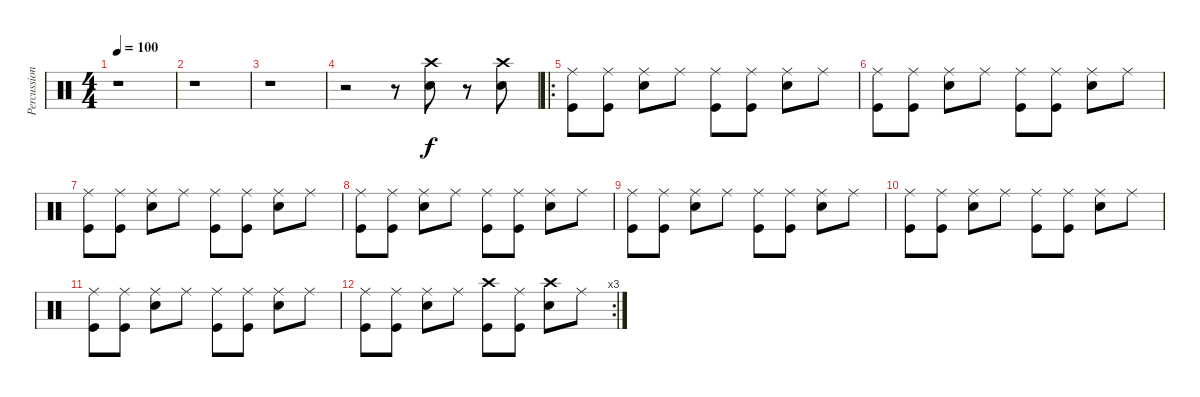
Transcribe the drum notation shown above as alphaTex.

\track ("Percussions" "Percussion") {instrument percussion}
\staff {score}
\articulation defaults
\ts (4 4)
\tempo 100
\clef neutral
\ks c
r.1{dy f} |
r.1 |
r.1 |
r.2 r.8 ("Crash high (hit)" "Electric Snare (hit)").8 r.8 ("Crash high (hit)" "Electric Snare (hit)").8 |
\ro
("Ride (middle)" "Kick (hit)").8 ("Ride (middle)" "Kick (hit)").8 ("Ride (middle)" "Electric Snare (hit)").8 "Ride (middle)".8 ("Ride (middle)" "Kick (hit)").8 ("Ride (middle)" "Kick (hit)").8 ("Ride (middle)" "Electric Snare (hit)").8 "Ride (middle)".8 |
("Ride (middle)" "Kick (hit)").8 ("Ride (middle)" "Kick (hit)").8 ("Ride (middle)" "Electric Snare (hit)").8 "Ride (middle)".8 ("Ride (middle)" "Kick (hit)").8 ("Ride (middle)" "Kick (hit)").8 ("Ride (middle)" "Electric Snare (hit)").8 "Ride (middle)".8 |
("Ride (middle)" "Kick (hit)").8 ("Ride (middle)" "Kick (hit)").8 ("Ride (middle)" "Electric Snare (hit)").8 "Ride (middle)".8 ("Ride (middle)" "Kick (hit)").8 ("Ride (middle)" "Kick (hit)").8 ("Ride (middle)" "Electric Snare (hit)").8 "Ride (middle)".8 |
("Ride (middle)" "Kick (hit)").8 ("Ride (middle)" "Kick (hit)").8 ("Ride (middle)" "Electric Snare (hit)").8 "Ride (middle)".8 ("Ride (middle)" "Kick (hit)").8 ("Ride (middle)" "Kick (hit)").8 ("Ride (middle)" "Electric Snare (hit)").8 "Ride (middle)".8 |
("Ride (middle)" "Kick (hit)").8 ("Ride (middle)" "Kick (hit)").8 ("Ride (middle)" "Electric Snare (hit)").8 "Ride (middle)".8 ("Ride (middle)" "Kick (hit)").8 ("Ride (middle)" "Kick (hit)").8 ("Ride (middle)" "Electric Snare (hit)").8 "Ride (middle)".8 |
("Ride (middle)" "Kick (hit)").8 ("Ride (middle)" "Kick (hit)").8 ("Ride (middle)" "Electric Snare (hit)").8 "Ride (middle)".8 ("Ride (middle)" "Kick (hit)").8 ("Ride (middle)" "Kick (hit)").8 ("Ride (middle)" "Electric Snare (hit)").8 "Ride (middle)".8 |
("Ride (middle)" "Kick (hit)").8 ("Ride (middle)" "Kick (hit)").8 ("Ride (middle)" "Electric Snare (hit)").8 "Ride (middle)".8 ("Ride (middle)" "Kick (hit)").8 ("Ride (middle)" "Kick (hit)").8 ("Ride (middle)" "Electric Snare (hit)").8 "Ride (middle)".8 |
\rc 3
("Ride (middle)" "Kick (hit)").8 ("Ride (middle)" "Kick (hit)").8 ("Ride (middle)" "Electric Snare (hit)").8 "Ride (middle)".8 ("Crash high (hit)" "Kick (hit)").8 ("Ride (middle)" "Kick (hit)").8 ("Crash high (hit)" "Electric Snare (hit)").8 "Ride (middle)".8
